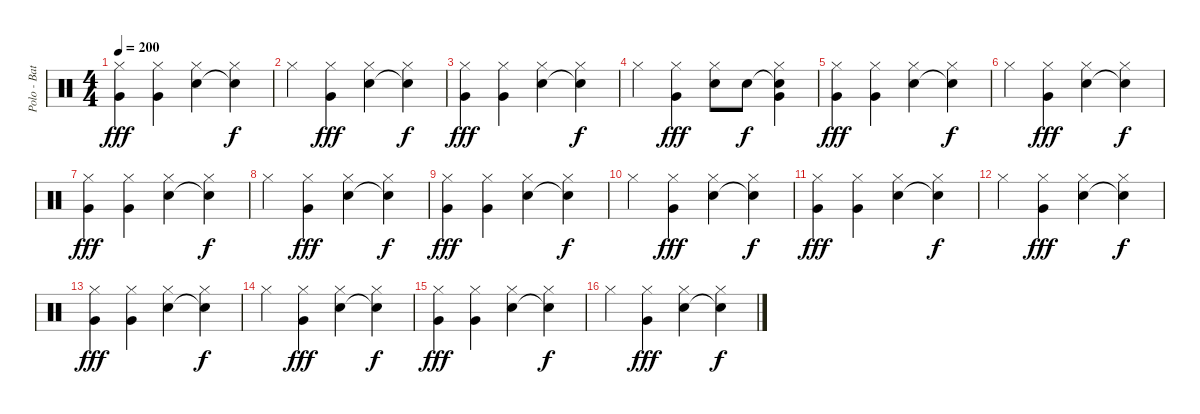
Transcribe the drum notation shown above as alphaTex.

\track ("Polo - Batería" "Polo - Bat") {instrument percussion}
\staff {score}
\articulation defaults
\ts (4 4)
\tempo 200
\clef neutral
\ks c
("Hi-Hat (closed)" "Very Low Tom (hit)").4{dy fff} ("Hi-Hat (closed)" "Very Low Tom (hit)").4 ("Hi-Hat (closed)" "Electric Snare (hit)").4 ("Hi-Hat (closed)" "Snare (hit)"{t}).4{dy f} |
"Hi-Hat (closed)".4 ("Hi-Hat (closed)" "Very Low Tom (hit)").4{dy fff} ("Hi-Hat (closed)" "Electric Snare (hit)").4 ("Hi-Hat (closed)" "Snare (hit)"{t}).4{dy f} |
("Hi-Hat (closed)" "Very Low Tom (hit)").4{dy fff} ("Hi-Hat (closed)" "Very Low Tom (hit)").4 ("Hi-Hat (closed)" "Electric Snare (hit)").4 ("Hi-Hat (closed)" "Snare (hit)"{t}).4{dy f} |
"Hi-Hat (closed)".4 ("Hi-Hat (closed)" "Very Low Tom (hit)").4{dy fff} ("Hi-Hat (closed)" "Electric Snare (hit)").8 "Electric Snare (hit)".8{dy f} ("Snare (hit)"{t} "Hi-Hat (closed)" "Very Low Tom (hit)").4 |
("Hi-Hat (closed)" "Very Low Tom (hit)").4{dy fff} ("Hi-Hat (closed)" "Very Low Tom (hit)").4 ("Hi-Hat (closed)" "Electric Snare (hit)").4 ("Hi-Hat (closed)" "Snare (hit)"{t}).4{dy f} |
"Hi-Hat (closed)".4 ("Hi-Hat (closed)" "Very Low Tom (hit)").4{dy fff} ("Hi-Hat (closed)" "Electric Snare (hit)").4 ("Hi-Hat (closed)" "Snare (hit)"{t}).4{dy f} |
("Hi-Hat (closed)" "Very Low Tom (hit)").4{dy fff} ("Hi-Hat (closed)" "Very Low Tom (hit)").4 ("Hi-Hat (closed)" "Electric Snare (hit)").4 ("Hi-Hat (closed)" "Snare (hit)"{t}).4{dy f} |
"Hi-Hat (closed)".4 ("Hi-Hat (closed)" "Very Low Tom (hit)").4{dy fff} ("Hi-Hat (closed)" "Electric Snare (hit)").4 ("Hi-Hat (closed)" "Snare (hit)"{t}).4{dy f} |
("Hi-Hat (closed)" "Very Low Tom (hit)").4{dy fff} ("Hi-Hat (closed)" "Very Low Tom (hit)").4 ("Hi-Hat (closed)" "Electric Snare (hit)").4 ("Hi-Hat (closed)" "Snare (hit)"{t}).4{dy f} |
"Hi-Hat (closed)".4 ("Hi-Hat (closed)" "Very Low Tom (hit)").4{dy fff} ("Hi-Hat (closed)" "Electric Snare (hit)").4 ("Hi-Hat (closed)" "Snare (hit)"{t}).4{dy f} |
("Hi-Hat (closed)" "Very Low Tom (hit)").4{dy fff} ("Hi-Hat (closed)" "Very Low Tom (hit)").4 ("Hi-Hat (closed)" "Electric Snare (hit)").4 ("Hi-Hat (closed)" "Snare (hit)"{t}).4{dy f} |
"Hi-Hat (closed)".4 ("Hi-Hat (closed)" "Very Low Tom (hit)").4{dy fff} ("Hi-Hat (closed)" "Electric Snare (hit)").4 ("Hi-Hat (closed)" "Snare (hit)"{t}).4{dy f} |
("Hi-Hat (closed)" "Very Low Tom (hit)").4{dy fff} ("Hi-Hat (closed)" "Very Low Tom (hit)").4 ("Hi-Hat (closed)" "Electric Snare (hit)").4 ("Hi-Hat (closed)" "Snare (hit)"{t}).4{dy f} |
"Hi-Hat (closed)".4 ("Hi-Hat (closed)" "Very Low Tom (hit)").4{dy fff} ("Hi-Hat (closed)" "Electric Snare (hit)").4 ("Hi-Hat (closed)" "Snare (hit)"{t}).4{dy f} |
("Hi-Hat (closed)" "Very Low Tom (hit)").4{dy fff} ("Hi-Hat (closed)" "Very Low Tom (hit)").4 ("Hi-Hat (closed)" "Electric Snare (hit)").4 ("Hi-Hat (closed)" "Snare (hit)"{t}).4{dy f} |
"Hi-Hat (closed)".4 ("Hi-Hat (closed)" "Very Low Tom (hit)").4{dy fff} ("Hi-Hat (closed)" "Electric Snare (hit)").4 ("Hi-Hat (closed)" "Snare (hit)"{t}).4{dy f}
